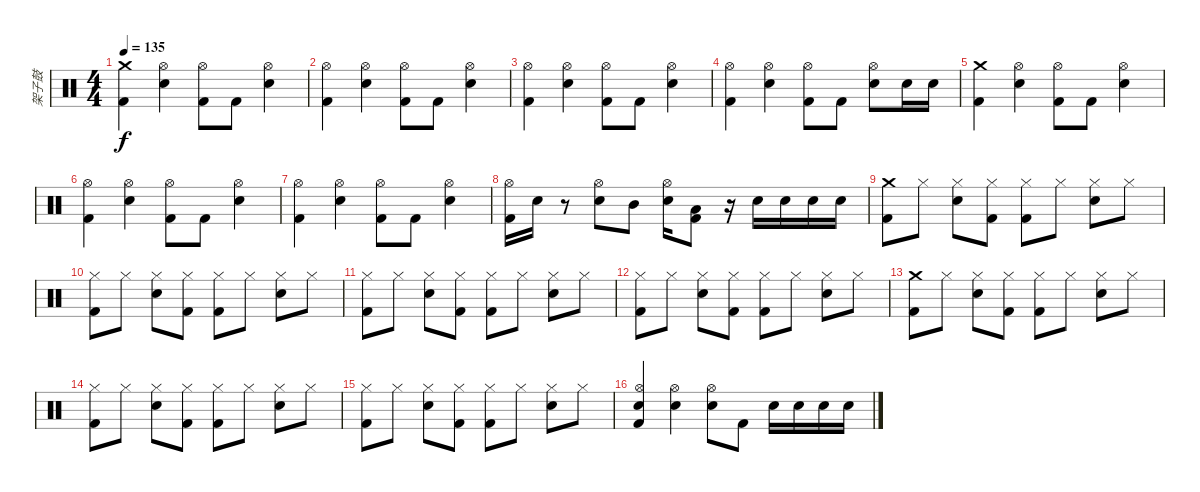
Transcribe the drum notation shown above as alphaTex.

\track ("架子鼓" "架子鼓") {instrument percussion}
\staff {score}
\articulation defaults
\ts (4 4)
\tempo 135
\clef neutral
\ks c
("Crash medium (hit)" "Kick (hit) 2").4{dy f} ("Hi-Hat (open)" "Electric Snare (hit)").4 ("Hi-Hat (open)" "Kick (hit) 2").8 "Kick (hit) 2".8 ("Hi-Hat (open)" "Electric Snare (hit)").4 |
("Hi-Hat (open)" "Kick (hit) 2").4 ("Hi-Hat (open)" "Electric Snare (hit)").4 ("Hi-Hat (open)" "Kick (hit) 2").8 "Kick (hit) 2".8 ("Hi-Hat (open)" "Electric Snare (hit)").4 |
("Hi-Hat (open)" "Kick (hit) 2").4 ("Hi-Hat (open)" "Electric Snare (hit)").4 ("Hi-Hat (open)" "Kick (hit) 2").8 "Kick (hit) 2".8 ("Hi-Hat (open)" "Electric Snare (hit)").4 |
("Hi-Hat (open)" "Kick (hit) 2").4 ("Hi-Hat (open)" "Electric Snare (hit)").4 ("Hi-Hat (open)" "Kick (hit) 2").8 "Kick (hit) 2".8 ("Hi-Hat (open)" "Electric Snare (hit)").8 "Electric Snare (hit)".16 "Electric Snare (hit)".16 |
("Crash medium (hit)" "Kick (hit) 2").4 ("Hi-Hat (open)" "Electric Snare (hit)").4 ("Hi-Hat (open)" "Kick (hit) 2").8 "Kick (hit) 2".8 ("Hi-Hat (open)" "Electric Snare (hit)").4 |
("Hi-Hat (open)" "Kick (hit) 2").4 ("Hi-Hat (open)" "Electric Snare (hit)").4 ("Hi-Hat (open)" "Kick (hit) 2").8 "Kick (hit) 2".8 ("Hi-Hat (open)" "Electric Snare (hit)").4 |
("Hi-Hat (open)" "Kick (hit) 2").4 ("Hi-Hat (open)" "Electric Snare (hit)").4 ("Hi-Hat (open)" "Kick (hit) 2").8 "Kick (hit) 2".8 ("Hi-Hat (open)" "Electric Snare (hit)").4 |
("Hi-Hat (open)" "Kick (hit) 2").16 "Electric Snare (hit)".16 r.8 ("Hi-Hat (open)" "Electric Snare (hit)").8 "Mid Tom (hit)".8 ("Hi-Hat (open)" "Electric Snare (hit)").16 ("Low Tom (hit)" "Kick (hit) 2").8 r.16 "Electric Snare (hit)".16 "Electric Snare (hit)".16 "Electric Snare (hit)".16 "Electric Snare (hit)".16 |
("Crash medium (hit)" "Kick (hit) 2").8 "Hi-Hat (closed)".8 ("Hi-Hat (closed)" "Electric Snare (hit)").8 ("Hi-Hat (closed)" "Kick (hit) 2").8 ("Hi-Hat (closed)" "Kick (hit) 2").8 "Hi-Hat (closed)".8 ("Hi-Hat (closed)" "Electric Snare (hit)").8 "Hi-Hat (closed)".8 |
("Hi-Hat (closed)" "Kick (hit) 2").8 "Hi-Hat (closed)".8 ("Hi-Hat (closed)" "Electric Snare (hit)").8 ("Hi-Hat (closed)" "Kick (hit) 2").8 ("Hi-Hat (closed)" "Kick (hit) 2").8 "Hi-Hat (closed)".8 ("Hi-Hat (closed)" "Electric Snare (hit)").8 "Hi-Hat (closed)".8 |
("Hi-Hat (closed)" "Kick (hit) 2").8 "Hi-Hat (closed)".8 ("Hi-Hat (closed)" "Electric Snare (hit)").8 ("Hi-Hat (closed)" "Kick (hit) 2").8 ("Hi-Hat (closed)" "Kick (hit) 2").8 "Hi-Hat (closed)".8 ("Hi-Hat (closed)" "Electric Snare (hit)").8 "Hi-Hat (closed)".8 |
("Hi-Hat (closed)" "Kick (hit) 2").8 "Hi-Hat (closed)".8 ("Hi-Hat (closed)" "Electric Snare (hit)").8 ("Hi-Hat (closed)" "Kick (hit) 2").8 ("Hi-Hat (closed)" "Kick (hit) 2").8 "Hi-Hat (closed)".8 ("Hi-Hat (closed)" "Electric Snare (hit)").8 "Hi-Hat (closed)".8 |
("Crash medium (hit)" "Kick (hit) 2").8 "Hi-Hat (closed)".8 ("Hi-Hat (closed)" "Electric Snare (hit)").8 ("Hi-Hat (closed)" "Kick (hit) 2").8 ("Hi-Hat (closed)" "Kick (hit) 2").8 "Hi-Hat (closed)".8 ("Hi-Hat (closed)" "Electric Snare (hit)").8 "Hi-Hat (closed)".8 |
("Hi-Hat (closed)" "Kick (hit) 2").8 "Hi-Hat (closed)".8 ("Hi-Hat (closed)" "Electric Snare (hit)").8 ("Hi-Hat (closed)" "Kick (hit) 2").8 ("Hi-Hat (closed)" "Kick (hit) 2").8 "Hi-Hat (closed)".8 ("Hi-Hat (closed)" "Electric Snare (hit)").8 "Hi-Hat (closed)".8 |
("Hi-Hat (closed)" "Kick (hit) 2").8 "Hi-Hat (closed)".8 ("Hi-Hat (closed)" "Electric Snare (hit)").8 ("Hi-Hat (closed)" "Kick (hit) 2").8 ("Hi-Hat (closed)" "Kick (hit) 2").8 "Hi-Hat (closed)".8 ("Hi-Hat (closed)" "Electric Snare (hit)").8 "Hi-Hat (closed)".8 |
("Hi-Hat (open)" "Electric Snare (hit)" "Kick (hit) 2").4 ("Hi-Hat (open)" "Electric Snare (hit)").4 ("Hi-Hat (open)" "Electric Snare (hit)").8 "Kick (hit) 2".8 "Electric Snare (hit)".16 "Electric Snare (hit)".16 "Electric Snare (hit)".16 "Electric Snare (hit)".16
